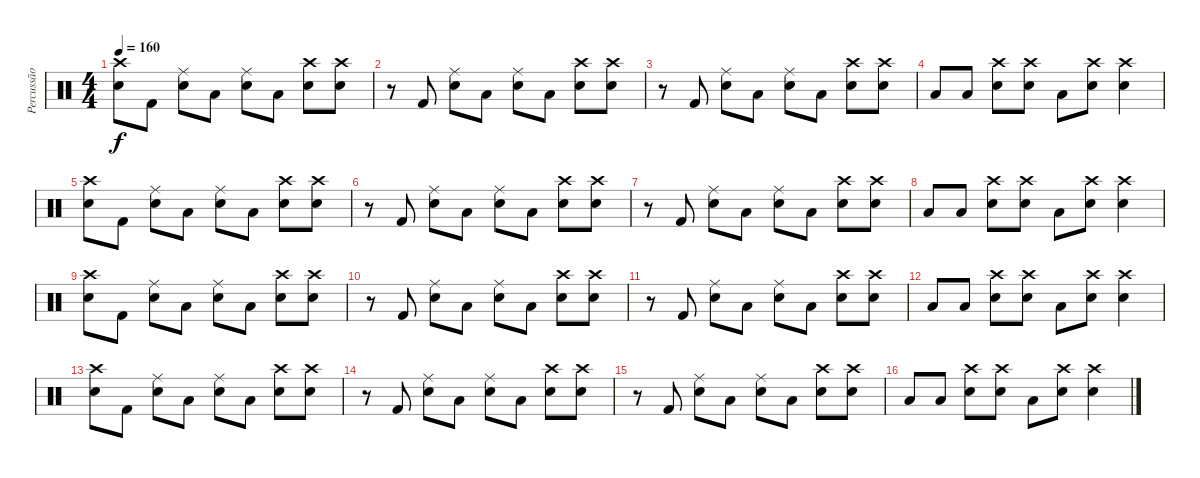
\track ("Percussão" "Percussão") {instrument percussion}
\staff {score}
\articulation defaults
\ts (4 4)
\tempo 160
\clef neutral
\ks c
("Crash high (hit)" "Snare (hit) 2").8{dy f} "Kick (hit) 2".8 ("Ride (middle)" "Snare (hit) 2").8 "Low Floor Tom (hit)".8 ("Ride (middle)" "Snare (hit) 2").8 "Low Floor Tom (hit)".8 ("Crash high (hit)" "Snare (hit) 2").8 ("Crash high (hit)" "Snare (hit) 2").8 |
r.8 "Kick (hit) 2".8 ("Ride (middle)" "Snare (hit) 2").8 "Low Floor Tom (hit)".8 ("Ride (middle)" "Snare (hit) 2").8 "Low Floor Tom (hit)".8 ("Crash high (hit)" "Snare (hit) 2").8 ("Crash high (hit)" "Snare (hit) 2").8 |
r.8 "Kick (hit) 2".8 ("Ride (middle)" "Snare (hit) 2").8 "Low Floor Tom (hit)".8 ("Ride (middle)" "Snare (hit) 2").8 "Low Floor Tom (hit)".8 ("Crash high (hit)" "Snare (hit) 2").8 ("Crash high (hit)" "Snare (hit) 2").8 |
"Low Floor Tom (hit)".8 "Low Floor Tom (hit)".8 ("Crash high (hit)" "Snare (hit) 2").8 ("Crash high (hit)" "Snare (hit) 2").8 "Low Floor Tom (hit)".8 ("Crash high (hit)" "Snare (hit) 2").8 ("Crash high (hit)" "Snare (hit) 2").4 |
("Crash high (hit)" "Snare (hit) 2").8 "Kick (hit) 2".8 ("Ride (middle)" "Snare (hit) 2").8 "Low Floor Tom (hit)".8 ("Ride (middle)" "Snare (hit) 2").8 "Low Floor Tom (hit)".8 ("Crash high (hit)" "Snare (hit) 2").8 ("Crash high (hit)" "Snare (hit) 2").8 |
r.8 "Kick (hit) 2".8 ("Ride (middle)" "Snare (hit) 2").8 "Low Floor Tom (hit)".8 ("Ride (middle)" "Snare (hit) 2").8 "Low Floor Tom (hit)".8 ("Crash high (hit)" "Snare (hit) 2").8 ("Crash high (hit)" "Snare (hit) 2").8 |
r.8 "Kick (hit) 2".8 ("Ride (middle)" "Snare (hit) 2").8 "Low Floor Tom (hit)".8 ("Ride (middle)" "Snare (hit) 2").8 "Low Floor Tom (hit)".8 ("Crash high (hit)" "Snare (hit) 2").8 ("Crash high (hit)" "Snare (hit) 2").8 |
"Low Floor Tom (hit)".8 "Low Floor Tom (hit)".8 ("Crash high (hit)" "Snare (hit) 2").8 ("Crash high (hit)" "Snare (hit) 2").8 "Low Floor Tom (hit)".8 ("Crash high (hit)" "Snare (hit) 2").8 ("Crash high (hit)" "Snare (hit) 2").4 |
("Crash high (hit)" "Snare (hit) 2").8 "Kick (hit) 2".8 ("Ride (middle)" "Snare (hit) 2").8 "Low Floor Tom (hit)".8 ("Ride (middle)" "Snare (hit) 2").8 "Low Floor Tom (hit)".8 ("Crash high (hit)" "Snare (hit) 2").8 ("Crash high (hit)" "Snare (hit) 2").8 |
r.8 "Kick (hit) 2".8 ("Ride (middle)" "Snare (hit) 2").8 "Low Floor Tom (hit)".8 ("Ride (middle)" "Snare (hit) 2").8 "Low Floor Tom (hit)".8 ("Crash high (hit)" "Snare (hit) 2").8 ("Crash high (hit)" "Snare (hit) 2").8 |
r.8 "Kick (hit) 2".8 ("Ride (middle)" "Snare (hit) 2").8 "Low Floor Tom (hit)".8 ("Ride (middle)" "Snare (hit) 2").8 "Low Floor Tom (hit)".8 ("Crash high (hit)" "Snare (hit) 2").8 ("Crash high (hit)" "Snare (hit) 2").8 |
"Low Floor Tom (hit)".8 "Low Floor Tom (hit)".8 ("Crash high (hit)" "Snare (hit) 2").8 ("Crash high (hit)" "Snare (hit) 2").8 "Low Floor Tom (hit)".8 ("Crash high (hit)" "Snare (hit) 2").8 ("Crash high (hit)" "Snare (hit) 2").4 |
("Crash high (hit)" "Snare (hit) 2").8 "Kick (hit) 2".8 ("Ride (middle)" "Snare (hit) 2").8 "Low Floor Tom (hit)".8 ("Ride (middle)" "Snare (hit) 2").8 "Low Floor Tom (hit)".8 ("Crash high (hit)" "Snare (hit) 2").8 ("Crash high (hit)" "Snare (hit) 2").8 |
r.8 "Kick (hit) 2".8 ("Ride (middle)" "Snare (hit) 2").8 "Low Floor Tom (hit)".8 ("Ride (middle)" "Snare (hit) 2").8 "Low Floor Tom (hit)".8 ("Crash high (hit)" "Snare (hit) 2").8 ("Crash high (hit)" "Snare (hit) 2").8 |
r.8 "Kick (hit) 2".8 ("Ride (middle)" "Snare (hit) 2").8 "Low Floor Tom (hit)".8 ("Ride (middle)" "Snare (hit) 2").8 "Low Floor Tom (hit)".8 ("Crash high (hit)" "Snare (hit) 2").8 ("Crash high (hit)" "Snare (hit) 2").8 |
"Low Floor Tom (hit)".8 "Low Floor Tom (hit)".8 ("Crash high (hit)" "Snare (hit) 2").8 ("Crash high (hit)" "Snare (hit) 2").8 "Low Floor Tom (hit)".8 ("Crash high (hit)" "Snare (hit) 2").8 ("Crash high (hit)" "Snare (hit) 2").4
